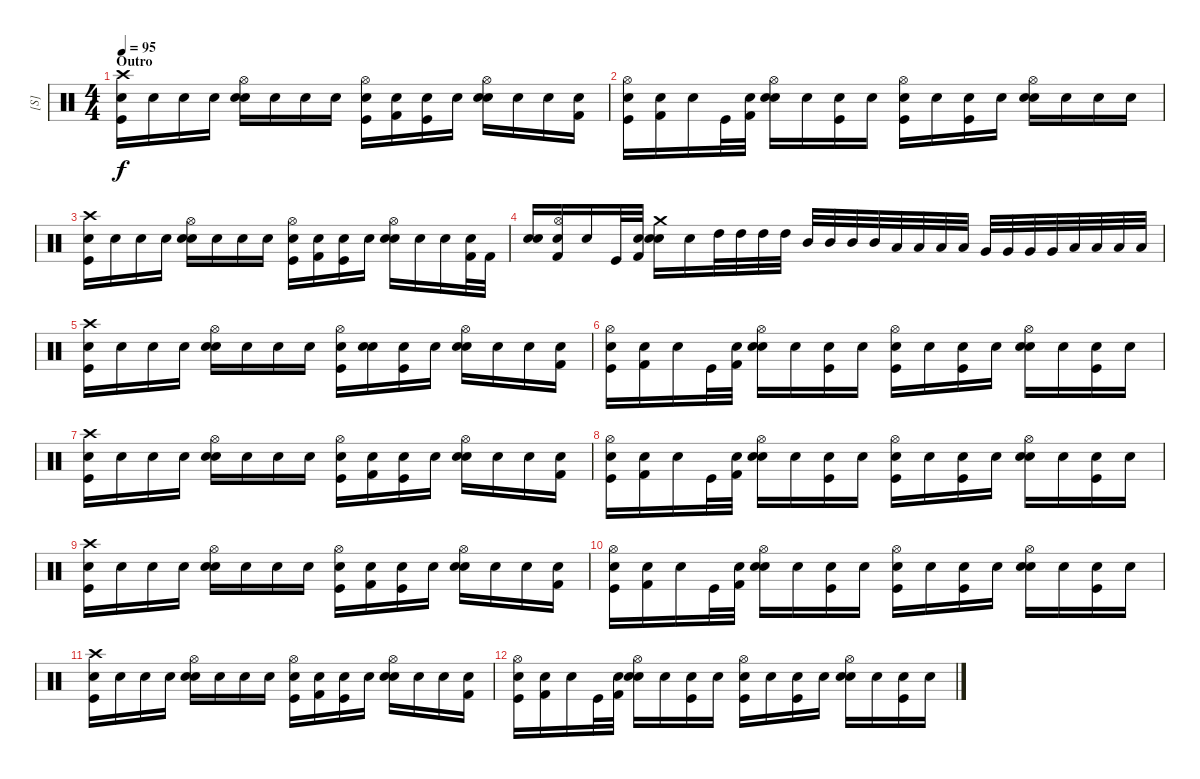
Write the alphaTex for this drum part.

\track ("[S]" "[S]") {instrument percussion}
\staff {score}
\articulation defaults
\ts (4 4)
\section ("" "Outro")
\tempo 95
\clef neutral
\ks c
("Crash high (hit)" "Kick (hit)" "Snare (hit)"{x}).16{dy f} "Snare (hit)"{x}.16 "Snare (hit)"{x}.16 "Snare (hit)"{x}.16 ("Hi-Hat (open)" "Snare (hit) 2" "Snare (hit)"{x}).16 "Snare (hit)"{x}.16 "Snare (hit)"{x}.16 "Snare (hit)"{x}.16 ("Hi-Hat (open)" "Kick (hit)" "Snare (hit)"{x}).16 ("Kick (hit) 2" "Snare (hit)"{x}).16 ("Kick (hit)" "Snare (hit)"{x}).16 "Snare (hit)"{x}.16 ("Hi-Hat (open)" "Snare (hit) 2" "Snare (hit)"{x}).16 "Snare (hit)"{x}.16 "Snare (hit)"{x}.16 ("Kick (hit) 2" "Snare (hit)"{x}).16 |
("Hi-Hat (open)" "Kick (hit)" "Snare (hit)"{x}).16 ("Kick (hit) 2" "Snare (hit)"{x}).16 "Snare (hit)"{x}.16 "Kick (hit)".32 ("Kick (hit) 2" "Snare (hit)"{x}).32 ("Hi-Hat (open)" "Snare (hit) 2" "Snare (hit)"{x}).16 "Snare (hit)"{x}.16 ("Kick (hit)" "Snare (hit)"{x}).16 "Snare (hit)"{x}.16 ("Hi-Hat (open)" "Kick (hit)" "Snare (hit)"{x}).16 "Snare (hit)"{x}.16 ("Kick (hit)" "Snare (hit)"{x}).16 "Snare (hit)"{x}.16 ("Hi-Hat (open)" "Snare (hit) 2" "Snare (hit)"{x}).16 "Snare (hit)"{x}.16 "Snare (hit)"{x}.16 "Snare (hit)"{x}.16 |
("Crash high (hit)" "Kick (hit)" "Snare (hit)"{x}).16 "Snare (hit)"{x}.16 "Snare (hit)"{x}.16 "Snare (hit)"{x}.16 ("Hi-Hat (open)" "Snare (hit) 2" "Snare (hit)"{x}).16 "Snare (hit)"{x}.16 "Snare (hit)"{x}.16 "Snare (hit)"{x}.16 ("Hi-Hat (open)" "Kick (hit)" "Snare (hit)"{x}).16 ("Kick (hit) 2" "Snare (hit)"{x}).16 ("Kick (hit)" "Snare (hit)"{x}).16 "Snare (hit)"{x}.16 ("Hi-Hat (open)" "Snare (hit) 2" "Snare (hit)"{x}).16 "Snare (hit)"{x}.16 "Snare (hit)"{x}.16 ("Kick (hit) 2" "Snare (hit)"{x}).32 "Kick (hit) 2".32 |
("Snare (hit) 2" "Snare (hit)"{x}).16 ("Hi-Hat (open)" "Kick (hit) 2" "Snare (hit)"{x}).16 "Snare (hit)"{x}.16 "Kick (hit)".32 ("Kick (hit) 2" "Snare (hit)"{x}).32 ("Crash medium (hit)" "Snare (hit) 2" "Snare (hit)"{x}).16 "Snare (hit)"{x}.16 "High Tom (hit)".32 "High Tom (hit)".32 "High Tom (hit)".32 "High Tom (hit)".32 "Mid Tom (hit)".32 "Mid Tom (hit)".32 "Mid Tom (hit)".32 "Mid Tom (hit)".32 "Low Tom (hit)".32 "Low Tom (hit)".32 "Low Tom (hit)".32 "Low Tom (hit)".32 "Very Low Tom (hit)".32 "Very Low Tom (hit)".32 "Very Low Tom (hit)".32 "Very Low Tom (hit)".32 "Low Floor Tom (hit)".32 "Low Floor Tom (hit)".32 "Low Floor Tom (hit)".32 "Low Floor Tom (hit)".32 |
("Crash high (hit)" "Kick (hit)" "Snare (hit)"{x}).16 "Snare (hit)"{x}.16 "Snare (hit)"{x}.16 "Snare (hit)"{x}.16 ("Hi-Hat (open)" "Snare (hit) 2" "Snare (hit)"{x}).16 "Snare (hit)"{x}.16 "Snare (hit)"{x}.16 "Snare (hit)"{x}.16 ("Hi-Hat (open)" "Kick (hit)" "Snare (hit)"{x}).16 ("Snare (hit) 2" "Snare (hit)"{x}).16 ("Kick (hit)" "Snare (hit)"{x}).16 "Snare (hit)"{x}.16 ("Hi-Hat (open)" "Snare (hit) 2" "Snare (hit)"{x}).16 "Snare (hit)"{x}.16 "Snare (hit)"{x}.16 ("Kick (hit) 2" "Snare (hit)"{x}).16 |
("Hi-Hat (open)" "Kick (hit)" "Snare (hit)"{x}).16 ("Kick (hit) 2" "Snare (hit)"{x}).16 "Snare (hit)"{x}.16 "Kick (hit)".32 ("Kick (hit) 2" "Snare (hit)"{x}).32 ("Hi-Hat (open)" "Snare (hit) 2" "Snare (hit)"{x}).16 "Snare (hit)"{x}.16 ("Kick (hit)" "Snare (hit)"{x}).16 "Snare (hit)"{x}.16 ("Hi-Hat (open)" "Kick (hit)" "Snare (hit)"{x}).16 "Snare (hit)"{x}.16 ("Kick (hit)" "Snare (hit)"{x}).16 "Snare (hit)"{x}.16 ("Hi-Hat (open)" "Snare (hit) 2" "Snare (hit)"{x}).16 "Snare (hit)"{x}.16 ("Kick (hit)" "Snare (hit)"{x}).16 "Snare (hit)"{x}.16 |
("Crash high (hit)" "Kick (hit)" "Snare (hit)"{x}).16 "Snare (hit)"{x}.16 "Snare (hit)"{x}.16 "Snare (hit)"{x}.16 ("Hi-Hat (open)" "Snare (hit) 2" "Snare (hit)"{x}).16 "Snare (hit)"{x}.16 "Snare (hit)"{x}.16 "Snare (hit)"{x}.16 ("Hi-Hat (open)" "Kick (hit)" "Snare (hit)"{x}).16 ("Kick (hit) 2" "Snare (hit)"{x}).16 ("Kick (hit)" "Snare (hit)"{x}).16 "Snare (hit)"{x}.16 ("Hi-Hat (open)" "Snare (hit) 2" "Snare (hit)"{x}).16 "Snare (hit)"{x}.16 "Snare (hit)"{x}.16 ("Kick (hit) 2" "Snare (hit)"{x}).16 |
("Hi-Hat (open)" "Kick (hit)" "Snare (hit)"{x}).16 ("Kick (hit) 2" "Snare (hit)"{x}).16 "Snare (hit)"{x}.16 "Kick (hit)".32 ("Kick (hit) 2" "Snare (hit)"{x}).32 ("Hi-Hat (open)" "Snare (hit) 2" "Snare (hit)"{x}).16 "Snare (hit)"{x}.16 ("Kick (hit)" "Snare (hit)"{x}).16 "Snare (hit)"{x}.16 ("Hi-Hat (open)" "Kick (hit)" "Snare (hit)"{x}).16 "Snare (hit)"{x}.16 ("Kick (hit)" "Snare (hit)"{x}).16 "Snare (hit)"{x}.16 ("Hi-Hat (open)" "Snare (hit) 2" "Snare (hit)"{x}).16 "Snare (hit)"{x}.16 ("Kick (hit)" "Snare (hit)"{x}).16 "Snare (hit)"{x}.16 |
("Crash high (hit)" "Kick (hit)" "Snare (hit)"{x}).16 "Snare (hit)"{x}.16 "Snare (hit)"{x}.16 "Snare (hit)"{x}.16 ("Hi-Hat (open)" "Snare (hit) 2" "Snare (hit)"{x}).16 "Snare (hit)"{x}.16 "Snare (hit)"{x}.16 "Snare (hit)"{x}.16 ("Hi-Hat (open)" "Kick (hit)" "Snare (hit)"{x}).16 ("Kick (hit) 2" "Snare (hit)"{x}).16 ("Kick (hit)" "Snare (hit)"{x}).16 "Snare (hit)"{x}.16 ("Hi-Hat (open)" "Snare (hit) 2" "Snare (hit)"{x}).16 "Snare (hit)"{x}.16 "Snare (hit)"{x}.16 ("Kick (hit) 2" "Snare (hit)"{x}).16 |
("Hi-Hat (open)" "Kick (hit)" "Snare (hit)"{x}).16 ("Kick (hit) 2" "Snare (hit)"{x}).16 "Snare (hit)"{x}.16 "Kick (hit)".32 ("Kick (hit) 2" "Snare (hit)"{x}).32 ("Hi-Hat (open)" "Snare (hit) 2" "Snare (hit)"{x}).16 "Snare (hit)"{x}.16 ("Kick (hit)" "Snare (hit)"{x}).16 "Snare (hit)"{x}.16 ("Hi-Hat (open)" "Kick (hit)" "Snare (hit)"{x}).16 "Snare (hit)"{x}.16 ("Kick (hit)" "Snare (hit)"{x}).16 "Snare (hit)"{x}.16 ("Hi-Hat (open)" "Snare (hit) 2" "Snare (hit)"{x}).16 "Snare (hit)"{x}.16 ("Kick (hit)" "Snare (hit)"{x}).16 "Snare (hit)"{x}.16 |
("Crash high (hit)" "Kick (hit)" "Snare (hit)"{x}).16 "Snare (hit)"{x}.16 "Snare (hit)"{x}.16 "Snare (hit)"{x}.16 ("Hi-Hat (open)" "Snare (hit) 2" "Snare (hit)"{x}).16 "Snare (hit)"{x}.16 "Snare (hit)"{x}.16 "Snare (hit)"{x}.16 ("Hi-Hat (open)" "Kick (hit)" "Snare (hit)"{x}).16 ("Kick (hit) 2" "Snare (hit)"{x}).16 ("Kick (hit)" "Snare (hit)"{x}).16 "Snare (hit)"{x}.16 ("Hi-Hat (open)" "Snare (hit) 2" "Snare (hit)"{x}).16 "Snare (hit)"{x}.16 "Snare (hit)"{x}.16 ("Kick (hit) 2" "Snare (hit)"{x}).16 |
("Hi-Hat (open)" "Kick (hit)" "Snare (hit)"{x}).16 ("Kick (hit) 2" "Snare (hit)"{x}).16 "Snare (hit)"{x}.16 "Kick (hit)".32 ("Kick (hit) 2" "Snare (hit)"{x}).32 ("Hi-Hat (open)" "Snare (hit) 2" "Snare (hit)"{x}).16 "Snare (hit)"{x}.16 ("Kick (hit)" "Snare (hit)"{x}).16 "Snare (hit)"{x}.16 ("Hi-Hat (open)" "Kick (hit)" "Snare (hit)"{x}).16 "Snare (hit)"{x}.16 ("Kick (hit)" "Snare (hit)"{x}).16 "Snare (hit)"{x}.16 ("Hi-Hat (open)" "Snare (hit) 2" "Snare (hit)"{x}).16 "Snare (hit)"{x}.16 ("Kick (hit)" "Snare (hit)"{x}).16 "Snare (hit)"{x}.16
